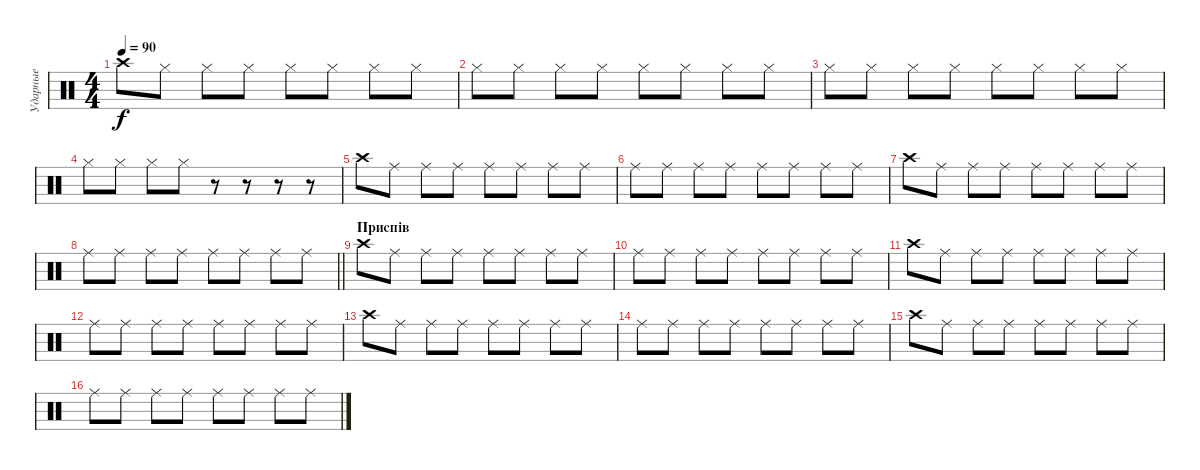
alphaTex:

\track ("Ударные" "Ударные") {instrument percussion}
\staff {score}
\articulation defaults
\ts (4 4)
\tempo 90
\clef neutral
\ks c "Crash high (hit)".8{dy f} "Hi-Hat (closed)".8 "Hi-Hat (closed)".8 "Hi-Hat (closed)".8 "Hi-Hat (closed)".8 "Hi-Hat (closed)".8 "Hi-Hat (closed)".8 "Hi-Hat (closed)".8
|
"Hi-Hat (closed)".8 "Hi-Hat (closed)".8 "Hi-Hat (closed)".8 "Hi-Hat (closed)".8 "Hi-Hat (closed)".8 "Hi-Hat (closed)".8 "Hi-Hat (closed)".8 "Hi-Hat (closed)".8 |
"Hi-Hat (closed)".8 "Hi-Hat (closed)".8 "Hi-Hat (closed)".8 "Hi-Hat (closed)".8 "Hi-Hat (closed)".8 "Hi-Hat (closed)".8 "Hi-Hat (closed)".8 "Hi-Hat (closed)".8 |
"Hi-Hat (closed)".8 "Hi-Hat (closed)".8 "Hi-Hat (closed)".8 "Hi-Hat (closed)".8 r.8 r.8 r.8 r.8 |
"Crash high (hit)".8 "Ride (middle)".8 "Ride (middle)".8 "Ride (middle)".8 "Ride (middle)".8 "Ride (middle)".8 "Ride (middle)".8 "Ride (middle)".8 |
"Ride (middle)".8 "Ride (middle)".8 "Ride (middle)".8 "Ride (middle)".8 "Ride (middle)".8 "Ride (middle)".8 "Ride (middle)".8 "Ride (middle)".8 |
"Crash high (hit)".8 "Ride (middle)".8 "Ride (middle)".8 "Ride (middle)".8 "Ride (middle)".8 "Ride (middle)".8 "Ride (middle)".8 "Ride (middle)".8 |
\barLineRight lightlight "Ride (middle)".8 "Ride (middle)".8 "Ride (middle)".8 "Ride (middle)".8 "Ride (middle)".8 "Ride (middle)".8 "Ride (middle)".8 "Ride (middle)".8
|
\section ("" "Приспів")
"Crash high (hit)".8 "Ride (middle)".8 "Ride (middle)".8 "Ride (middle)".8 "Ride (middle)".8 "Ride (middle)".8 "Ride (middle)".8 "Ride (middle)".8 |
"Ride (middle)".8 "Ride (middle)".8 "Ride (middle)".8 "Ride (middle)".8 "Ride (middle)".8 "Ride (middle)".8 "Ride (middle)".8 "Ride (middle)".8 |
"Crash high (hit)".8 "Ride (middle)".8 "Ride (middle)".8 "Ride (middle)".8 "Ride (middle)".8 "Ride (middle)".8 "Ride (middle)".8 "Ride (middle)".8 |
"Ride (middle)".8 "Ride (middle)".8 "Ride (middle)".8 "Ride (middle)".8 "Ride (middle)".8 "Ride (middle)".8 "Ride (middle)".8 "Ride (middle)".8 |
"Crash high (hit)".8 "Ride (middle)".8 "Ride (middle)".8 "Ride (middle)".8 "Ride (middle)".8 "Ride (middle)".8 "Ride (middle)".8 "Ride (middle)".8 |
"Ride (middle)".8 "Ride (middle)".8 "Ride (middle)".8 "Ride (middle)".8 "Ride (middle)".8 "Ride (middle)".8 "Ride (middle)".8 "Ride (middle)".8 |
"Crash high (hit)".8 "Ride (middle)".8 "Ride (middle)".8 "Ride (middle)".8 "Ride (middle)".8 "Ride (middle)".8 "Ride (middle)".8 "Ride (middle)".8 |
"Ride (middle)".8 "Ride (middle)".8 "Ride (middle)".8 "Ride (middle)".8 "Ride (middle)".8 "Ride (middle)".8 "Ride (middle)".8 "Ride (middle)".8
